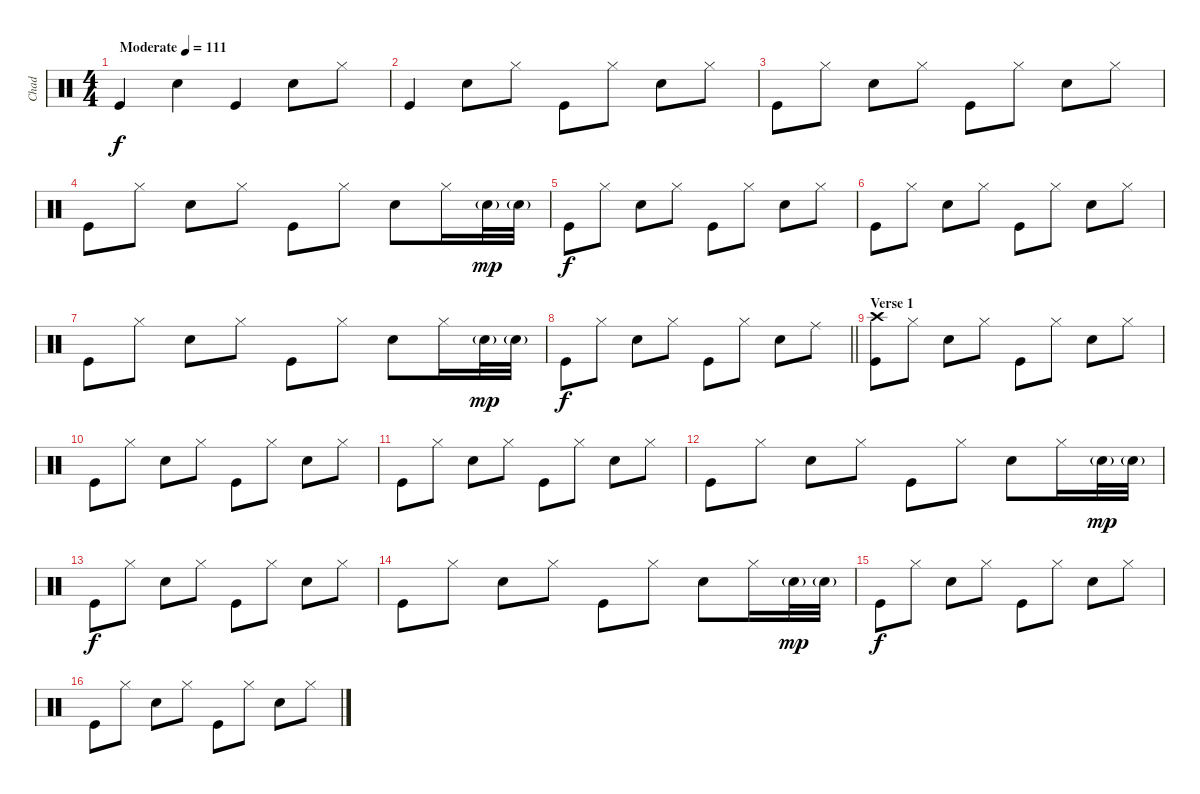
\track ("Chad" "Chad") {instrument percussion}
\staff {score}
\articulation defaults
\ts (4 4)
\tempo (111 "Moderate")
\clef neutral
\ks c "Kick (hit)".4{dy f} "Snare (hit) 2".4 "Kick (hit)".4 "Snare (hit) 2".8 "Hi-Hat (closed)".8
|
"Kick (hit)".4 "Snare (hit) 2".8 "Hi-Hat (closed)".8 "Kick (hit)".8 "Hi-Hat (closed)".8 "Snare (hit) 2".8 "Hi-Hat (closed)".8 |
"Kick (hit)".8 "Hi-Hat (closed)".8 "Snare (hit) 2".8 "Hi-Hat (closed)".8 "Kick (hit)".8 "Hi-Hat (closed)".8 "Snare (hit) 2".8 "Hi-Hat (closed)".8 |
"Kick (hit)".8 "Hi-Hat (closed)".8 "Snare (hit) 2".8 "Hi-Hat (closed)".8 "Kick (hit)".8 "Hi-Hat (closed)".8 "Snare (hit) 2".8 "Hi-Hat (closed)".16 "Snare (hit) 2"{g}.32{dy mp} "Snare (hit) 2"{g}.32 |
"Kick (hit)".8{dy f} "Hi-Hat (closed)".8 "Snare (hit) 2".8 "Hi-Hat (closed)".8 "Kick (hit)".8 "Hi-Hat (closed)".8 "Snare (hit) 2".8 "Hi-Hat (closed)".8 |
"Kick (hit)".8 "Hi-Hat (closed)".8 "Snare (hit) 2".8 "Hi-Hat (closed)".8 "Kick (hit)".8 "Hi-Hat (closed)".8 "Snare (hit) 2".8 "Hi-Hat (closed)".8 |
"Kick (hit)".8 "Hi-Hat (closed)".8 "Snare (hit) 2".8 "Hi-Hat (closed)".8 "Kick (hit)".8 "Hi-Hat (closed)".8 "Snare (hit) 2".8 "Hi-Hat (closed)".16 "Snare (hit) 2"{g}.32{dy mp} "Snare (hit) 2"{g}.32 |
\barLineRight lightlight "Kick (hit)".8{dy f} "Hi-Hat (closed)".8 "Snare (hit) 2".8 "Hi-Hat (closed)".8 "Kick (hit)".8 "Hi-Hat (closed)".8 "Snare (hit) 2".8 "Ride (middle)".8
|
\section ("" "Verse 1")
("Crash high (hit)" "Kick (hit)").8 "Hi-Hat (closed)".8 "Snare (hit) 2".8 "Hi-Hat (closed)".8 "Kick (hit)".8 "Hi-Hat (closed)".8 "Snare (hit) 2".8 "Hi-Hat (closed)".8 |
"Kick (hit)".8 "Hi-Hat (closed)".8 "Snare (hit) 2".8 "Hi-Hat (closed)".8 "Kick (hit)".8 "Hi-Hat (closed)".8 "Snare (hit) 2".8 "Hi-Hat (closed)".8 |
"Kick (hit)".8 "Hi-Hat (closed)".8 "Snare (hit) 2".8 "Hi-Hat (closed)".8 "Kick (hit)".8 "Hi-Hat (closed)".8 "Snare (hit) 2".8 "Hi-Hat (closed)".8 |
"Kick (hit)".8 "Hi-Hat (closed)".8 "Snare (hit) 2".8 "Hi-Hat (closed)".8 "Kick (hit)".8 "Hi-Hat (closed)".8 "Snare (hit) 2".8 "Hi-Hat (closed)".16 "Snare (hit) 2"{g}.32{dy mp} "Snare (hit) 2"{g}.32 |
"Kick (hit)".8{dy f} "Hi-Hat (closed)".8 "Snare (hit) 2".8 "Hi-Hat (closed)".8 "Kick (hit)".8 "Hi-Hat (closed)".8 "Snare (hit) 2".8 "Hi-Hat (closed)".8 |
"Kick (hit)".8 "Hi-Hat (closed)".8 "Snare (hit) 2".8 "Hi-Hat (closed)".8 "Kick (hit)".8 "Hi-Hat (closed)".8 "Snare (hit) 2".8 "Hi-Hat (closed)".16 "Snare (hit) 2"{g}.32{dy mp} "Snare (hit) 2"{g}.32 |
"Kick (hit)".8{dy f} "Hi-Hat (closed)".8 "Snare (hit) 2".8 "Hi-Hat (closed)".8 "Kick (hit)".8 "Hi-Hat (closed)".8 "Snare (hit) 2".8 "Hi-Hat (closed)".8 |
"Kick (hit)".8 "Hi-Hat (closed)".8 "Snare (hit) 2".8 "Hi-Hat (closed)".8 "Kick (hit)".8 "Hi-Hat (closed)".8 "Snare (hit) 2".8 "Hi-Hat (closed)".8
